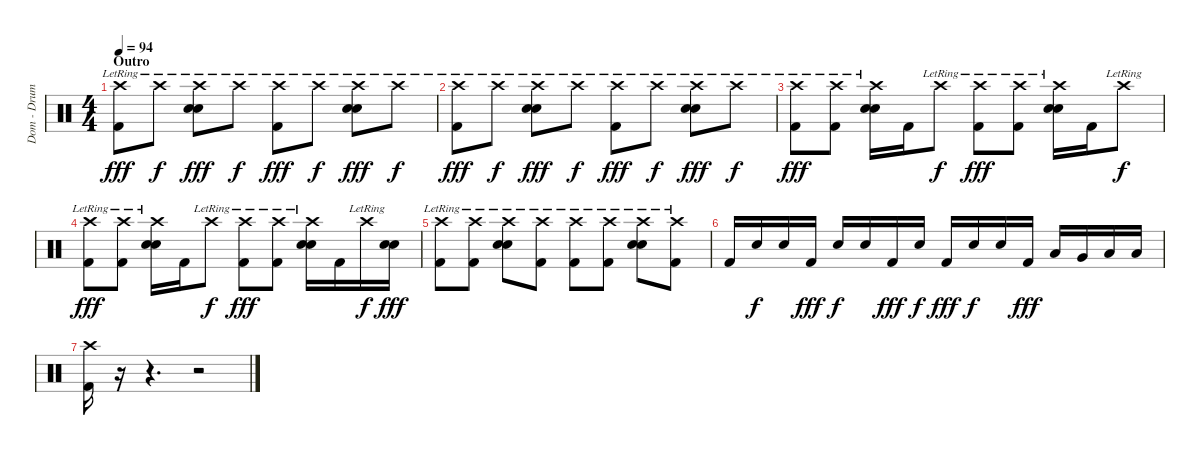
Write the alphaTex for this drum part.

\track ("Dom - Drums" "Dom - Drum") {instrument percussion}
\staff {score}
\articulation defaults
\ts (4 4)
\section ("" "Outro")
\tempo 94
\clef neutral
\ks c
("Crash high (hit)"{lr} "Kick (hit) 2").8{dy fff} "Crash high (hit)"{lr}.8{dy f} ("Crash high (hit)"{lr} "Electric Snare (hit)" "Snare (hit) 2").8{dy fff} "Crash high (hit)"{lr}.8{dy f} ("Crash high (hit)"{lr} "Kick (hit) 2").8{dy fff} "Crash high (hit)"{lr}.8{dy f} ("Crash high (hit)"{lr} "Electric Snare (hit)" "Snare (hit) 2").8{dy fff} "Crash high (hit)"{lr}.8{dy f} |
("Crash high (hit)"{lr} "Kick (hit) 2").8{dy fff} "Crash high (hit)"{lr}.8{dy f} ("Crash high (hit)"{lr} "Electric Snare (hit)" "Snare (hit) 2").8{dy fff} "Crash high (hit)"{lr}.8{dy f} ("Crash high (hit)"{lr} "Kick (hit) 2").8{dy fff} "Crash high (hit)"{lr}.8{dy f} ("Crash high (hit)"{lr} "Electric Snare (hit)" "Snare (hit) 2").8{dy fff} "Crash high (hit)"{lr}.8{dy f} |
("Crash high (hit)"{lr} "Kick (hit) 2").8{dy fff} ("Crash high (hit)"{lr} "Kick (hit) 2").8 ("Crash high (hit)"{lr} "Electric Snare (hit)" "Snare (hit) 2").16 "Kick (hit) 2".16 "Crash high (hit)"{lr}.8{dy f} ("Crash high (hit)"{lr} "Kick (hit) 2").8{dy fff} ("Crash high (hit)"{lr} "Kick (hit) 2").8 ("Crash high (hit)"{lr} "Electric Snare (hit)" "Snare (hit) 2").16 "Kick (hit) 2".16 "Crash high (hit)"{lr}.8{dy f} |
("Crash high (hit)"{lr} "Kick (hit) 2").8{dy fff} ("Crash high (hit)"{lr} "Kick (hit) 2").8 ("Crash high (hit)"{lr} "Electric Snare (hit)" "Snare (hit) 2").16 "Kick (hit) 2".16 "Crash high (hit)"{lr}.8{dy f} ("Crash high (hit)"{lr} "Kick (hit) 2").8{dy fff} ("Crash high (hit)"{lr} "Kick (hit) 2").8 ("Crash high (hit)"{lr} "Electric Snare (hit)" "Snare (hit) 2").16 "Kick (hit) 2".16 "Crash high (hit)"{lr}.16{dy f} ("Electric Snare (hit)" "Snare (hit) 2").16{dy fff} |
("Crash high (hit)"{lr} "Kick (hit) 2").8 ("Crash high (hit)"{lr} "Kick (hit) 2").8 ("Crash high (hit)"{lr} "Electric Snare (hit)" "Snare (hit) 2").8 ("Crash high (hit)"{lr} "Kick (hit) 2").8 ("Crash high (hit)"{lr} "Kick (hit) 2").8 ("Crash high (hit)"{lr} "Kick (hit) 2").8 ("Crash high (hit)"{lr} "Electric Snare (hit)" "Snare (hit) 2").8 ("Crash high (hit)"{lr} "Kick (hit) 2").8 |
"Kick (hit) 2".16 "Snare (hit) 2".16{dy f} "Snare (hit) 2".16 "Kick (hit) 2".16{dy fff} "Snare (hit) 2".16{dy f} "Snare (hit) 2".16 "Kick (hit) 2".16{dy fff} "Snare (hit) 2".16{dy f} "Kick (hit) 2".16{dy fff} "Snare (hit) 2".16{dy f} "Snare (hit) 2".16 "Kick (hit) 2".16{dy fff} "Low Tom (hit)".16 "Very Low Tom (hit)".16 "Low Floor Tom (hit)".16 "Low Floor Tom (hit)".16 |
("Crash high (hit)" "Kick (hit) 2").16 r.16 r.4{d} r.2
